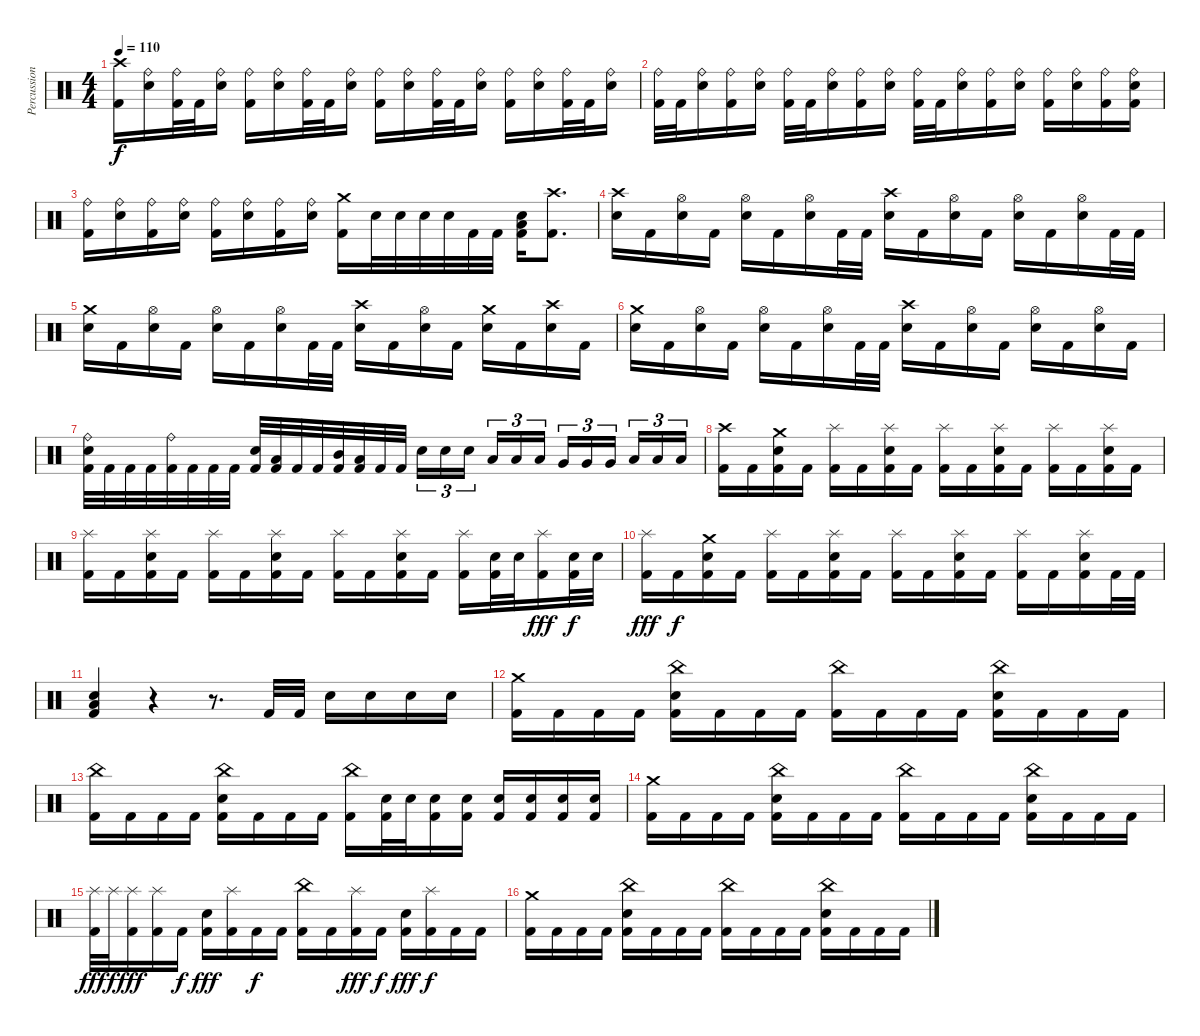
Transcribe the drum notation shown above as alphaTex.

\track ("Percussion" "Percussion") {instrument percussion}
\staff {score}
\articulation defaults
\ts (4 4)
\tempo 110
\clef neutral
\ks c
("Crash high (hit)" "Kick (hit) 2").16{dy f} ("Ride (bell)" "Electric Snare (hit)").16 ("Ride (bell)" "Kick (hit) 2").32 "Kick (hit) 2".32 ("Ride (bell)" "Electric Snare (hit)").16 ("Ride (bell)" "Kick (hit) 2").16 ("Ride (bell)" "Electric Snare (hit)").16 ("Ride (bell)" "Kick (hit) 2").32 "Kick (hit) 2".32 ("Ride (bell)" "Electric Snare (hit)").16 ("Ride (bell)" "Kick (hit) 2").16 ("Ride (bell)" "Electric Snare (hit)").16 ("Ride (bell)" "Kick (hit) 2").32 "Kick (hit) 2".32 ("Ride (bell)" "Electric Snare (hit)").16 ("Ride (bell)" "Kick (hit) 2").16 ("Ride (bell)" "Electric Snare (hit)").16 ("Ride (bell)" "Kick (hit) 2").32 "Kick (hit) 2".32 ("Ride (bell)" "Electric Snare (hit)").16 |
("Ride (bell)" "Kick (hit) 2").32 "Kick (hit) 2".32 ("Ride (bell)" "Electric Snare (hit)").16 ("Ride (bell)" "Kick (hit) 2").16 ("Ride (bell)" "Electric Snare (hit)").16 ("Ride (bell)" "Kick (hit) 2").32 "Kick (hit) 2".32 ("Ride (bell)" "Electric Snare (hit)").16 ("Ride (bell)" "Kick (hit) 2").16 ("Ride (bell)" "Electric Snare (hit)").16 ("Ride (bell)" "Kick (hit) 2").32 "Kick (hit) 2".32 ("Ride (bell)" "Electric Snare (hit)").16 ("Ride (bell)" "Kick (hit) 2").16 ("Ride (bell)" "Electric Snare (hit)").16 ("Ride (bell)" "Kick (hit) 2").16 ("Ride (bell)" "Electric Snare (hit)").16 ("Ride (bell)" "Kick (hit) 2").16 ("Ride (bell)" "Electric Snare (hit)" "Kick (hit) 2").16 |
("Ride (bell)" "Kick (hit) 2").16 ("Ride (bell)" "Electric Snare (hit)").16 ("Ride (bell)" "Kick (hit) 2").16 ("Ride (bell)" "Electric Snare (hit)").16 ("Ride (bell)" "Kick (hit) 2").16 ("Ride (bell)" "Electric Snare (hit)").16 ("Ride (bell)" "Kick (hit) 2").16 ("Ride (bell)" "Electric Snare (hit)").16 ("Crash medium (hit)" "Kick (hit) 2").16 "Electric Snare (hit)".32 "Electric Snare (hit)".32 "Electric Snare (hit)".32 "Electric Snare (hit)".32 "Kick (hit) 2".32 "Kick (hit) 2".32 ("Electric Snare (hit)" "Low Floor Tom (hit)" "Kick (hit) 2").16 ("Crash high (hit)" "Kick (hit) 2").8{d} |
("Crash high (hit)" "Electric Snare (hit)").16 "Kick (hit) 2".16 ("Hi-Hat (open)" "Electric Snare (hit)").16 "Kick (hit) 2".16 ("Hi-Hat (open)" "Electric Snare (hit)").16 "Kick (hit) 2".16 ("Hi-Hat (open)" "Electric Snare (hit)").16 "Kick (hit) 2".32 "Kick (hit) 2".32 ("Crash high (hit)" "Electric Snare (hit)").16 "Kick (hit) 2".16 ("Hi-Hat (open)" "Electric Snare (hit)").16 "Kick (hit) 2".16 ("Hi-Hat (open)" "Electric Snare (hit)").16 "Kick (hit) 2".16 ("Hi-Hat (open)" "Electric Snare (hit)").16 "Kick (hit) 2".32 "Kick (hit) 2".32 |
("Crash medium (hit)" "Electric Snare (hit)").16 "Kick (hit) 2".16 ("Hi-Hat (open)" "Electric Snare (hit)").16 "Kick (hit) 2".16 ("Hi-Hat (open)" "Electric Snare (hit)").16 "Kick (hit) 2".16 ("Hi-Hat (open)" "Electric Snare (hit)").16 "Kick (hit) 2".32 "Kick (hit) 2".32 ("Crash high (hit)" "Electric Snare (hit)").16 "Kick (hit) 2".16 ("Hi-Hat (open)" "Electric Snare (hit)").16 "Kick (hit) 2".16 ("Crash medium (hit)" "Electric Snare (hit)").16 "Kick (hit) 2".16 ("Crash high (hit)" "Electric Snare (hit)").16 "Kick (hit) 2".16 |
("Crash medium (hit)" "Electric Snare (hit)").16 "Kick (hit) 2".16 ("Hi-Hat (open)" "Electric Snare (hit)").16 "Kick (hit) 2".16 ("Hi-Hat (open)" "Electric Snare (hit)").16 "Kick (hit) 2".16 ("Hi-Hat (open)" "Electric Snare (hit)").16 "Kick (hit) 2".32 "Kick (hit) 2".32 ("Crash high (hit)" "Electric Snare (hit)").16 "Kick (hit) 2".16 ("Hi-Hat (open)" "Electric Snare (hit)").16 "Kick (hit) 2".16 ("Hi-Hat (open)" "Electric Snare (hit)").16 "Kick (hit) 2".16 ("Hi-Hat (open)" "Electric Snare (hit)").16 "Kick (hit) 2".16 |
("Ride (bell)" "Electric Snare (hit)" "Kick (hit) 2").32 "Kick (hit) 2".32 "Kick (hit) 2".32 "Kick (hit) 2".32 ("Ride (bell)" "Kick (hit) 2").32 "Kick (hit) 2".32 "Kick (hit) 2".32 "Kick (hit) 2".32 ("Electric Snare (hit)" "Kick (hit) 2").32 ("Low Floor Tom (hit)" "Kick (hit) 2").32 "Kick (hit) 2".32 "Kick (hit) 2".32 ("Mid Tom (hit)" "Kick (hit) 2").32 ("Low Floor Tom (hit)" "Kick (hit) 2").32 "Kick (hit) 2".32 "Kick (hit) 2".32 "Electric Snare (hit)".16{tu (3 2)} "Electric Snare (hit)".16{tu (3 2)} "Electric Snare (hit)".16{tu (3 2) beam splitsecondary} "Low Tom (hit)".16{tu (3 2)} "Low Tom (hit)".16{tu (3 2)} "Low Tom (hit)".16{tu (3 2)} "Very Low Tom (hit)".16{tu (3 2)} "Very Low Tom (hit)".16{tu (3 2)} "Very Low Tom (hit)".16{tu (3 2) beam splitsecondary} "Low Floor Tom (hit)".16{tu (3 2)} "Low Floor Tom (hit)".16{tu (3 2)} "Low Floor Tom (hit)".16{tu (3 2)} |
("Crash high (hit)" "Kick (hit) 2").16 "Kick (hit) 2".16 ("Crash medium (hit)" "Electric Snare (hit)" "Kick (hit) 2").16 "Kick (hit) 2".16 ("Splash (hit)" "Kick (hit) 2").16 "Kick (hit) 2".16 ("Splash (hit)" "Electric Snare (hit)" "Kick (hit) 2").16 "Kick (hit) 2".16 ("Splash (hit)" "Kick (hit) 2").16 "Kick (hit) 2".16 ("Splash (hit)" "Electric Snare (hit)" "Kick (hit) 2").16 "Kick (hit) 2".16 ("Splash (hit)" "Kick (hit) 2").16 "Kick (hit) 2".16 ("Splash (hit)" "Electric Snare (hit)" "Kick (hit) 2").16 "Kick (hit) 2".16 |
("Splash (hit)" "Kick (hit) 2").16 "Kick (hit) 2".16 ("Splash (hit)" "Electric Snare (hit)" "Kick (hit) 2").16 "Kick (hit) 2".16 ("Splash (hit)" "Kick (hit) 2").16 "Kick (hit) 2".16 ("Splash (hit)" "Electric Snare (hit)" "Kick (hit) 2").16 "Kick (hit) 2".16 ("Splash (hit)" "Kick (hit) 2").16 "Kick (hit) 2".16 ("Splash (hit)" "Electric Snare (hit)" "Kick (hit) 2").16 "Kick (hit) 2".16 ("Splash (hit)" "Kick (hit) 2").16 ("Electric Snare (hit)" "Kick (hit) 2").32 "Electric Snare (hit)".32 ("Splash (hit)" "Kick (hit) 2").16{dy fff} ("Electric Snare (hit)" "Kick (hit) 2").32{dy f} "Electric Snare (hit)".32 |
("Splash (hit)" "Kick (hit) 2").16{dy fff} "Kick (hit) 2".16{dy f} ("Crash medium (hit)" "Electric Snare (hit)" "Kick (hit) 2").16 "Kick (hit) 2".16 ("Splash (hit)" "Kick (hit) 2").16 "Kick (hit) 2".16 ("Splash (hit)" "Electric Snare (hit)" "Kick (hit) 2").16 "Kick (hit) 2".16 ("Splash (hit)" "Kick (hit) 2").16 "Kick (hit) 2".16 ("Splash (hit)" "Electric Snare (hit)" "Kick (hit) 2").16 "Kick (hit) 2".16 ("Splash (hit)" "Kick (hit) 2").16 "Kick (hit) 2".16 ("Splash (hit)" "Electric Snare (hit)" "Kick (hit) 2").16 "Kick (hit) 2".32 "Kick (hit) 2".32 |
("Electric Snare (hit)" "Low Floor Tom (hit)" "Kick (hit) 2").4 r.4 r.8{d} "Kick (hit) 2".32 "Kick (hit) 2".32 "Electric Snare (hit)".16 "Electric Snare (hit)".16 "Electric Snare (hit)".16 "Electric Snare (hit)".16 |
("Crash medium (hit)" "Kick (hit) 2").16 "Kick (hit) 2".16 "Kick (hit) 2".16 "Kick (hit) 2".16 ("China (hit)" "Electric Snare (hit)" "Kick (hit) 2").16 "Kick (hit) 2".16 "Kick (hit) 2".16 "Kick (hit) 2".16 ("China (hit)" "Kick (hit) 2").16 "Kick (hit) 2".16 "Kick (hit) 2".16 "Kick (hit) 2".16 ("China (hit)" "Electric Snare (hit)" "Kick (hit) 2").16 "Kick (hit) 2".16 "Kick (hit) 2".16 "Kick (hit) 2".16 |
("China (hit)" "Kick (hit) 2").16 "Kick (hit) 2".16 "Kick (hit) 2".16 "Kick (hit) 2".16 ("China (hit)" "Electric Snare (hit)" "Kick (hit) 2").16 "Kick (hit) 2".16 "Kick (hit) 2".16 "Kick (hit) 2".16 ("China (hit)" "Kick (hit) 2").16 ("Electric Snare (hit)" "Kick (hit) 2").32 "Electric Snare (hit)".32 ("Electric Snare (hit)" "Kick (hit) 2").16 ("Electric Snare (hit)" "Kick (hit) 2").16 ("Electric Snare (hit)" "Kick (hit) 2").16 ("Electric Snare (hit)" "Kick (hit) 2").16 ("Electric Snare (hit)" "Kick (hit) 2").16 ("Electric Snare (hit)" "Kick (hit) 2").16 |
("Crash medium (hit)" "Kick (hit) 2").16 "Kick (hit) 2".16 "Kick (hit) 2".16 "Kick (hit) 2".16 ("China (hit)" "Electric Snare (hit)" "Kick (hit) 2").16 "Kick (hit) 2".16 "Kick (hit) 2".16 "Kick (hit) 2".16 ("China (hit)" "Kick (hit) 2").16 "Kick (hit) 2".16 "Kick (hit) 2".16 "Kick (hit) 2".16 ("China (hit)" "Electric Snare (hit)" "Kick (hit) 2").16 "Kick (hit) 2".16 "Kick (hit) 2".16 "Kick (hit) 2".16 |
("Splash (hit)" "Kick (hit) 2").32{dy fff} "Splash (hit)".32{dy f} ("Splash (hit)" "Kick (hit) 2").16{dy fff} ("Splash (hit)" "Kick (hit) 2").16 "Kick (hit) 2".16{dy f} ("Electric Snare (hit)" "Kick (hit) 2").16{dy fff} ("Splash (hit)" "Kick (hit) 2").16 "Kick (hit) 2".16{dy f} "Kick (hit) 2".16 ("China (hit)" "Kick (hit) 2").16 "Kick (hit) 2".16 ("Splash (hit)" "Kick (hit) 2").16{dy fff} "Kick (hit) 2".16{dy f} ("Electric Snare (hit)" "Kick (hit) 2").16{dy fff} ("Splash (hit)" "Kick (hit) 2").16{dy f} "Kick (hit) 2".16 "Kick (hit) 2".16 |
("Crash medium (hit)" "Kick (hit) 2").16 "Kick (hit) 2".16 "Kick (hit) 2".16 "Kick (hit) 2".16 ("China (hit)" "Electric Snare (hit)" "Kick (hit) 2").16 "Kick (hit) 2".16 "Kick (hit) 2".16 "Kick (hit) 2".16 ("China (hit)" "Kick (hit) 2").16 "Kick (hit) 2".16 "Kick (hit) 2".16 "Kick (hit) 2".16 ("China (hit)" "Electric Snare (hit)" "Kick (hit) 2").16 "Kick (hit) 2".16 "Kick (hit) 2".16 "Kick (hit) 2".16
